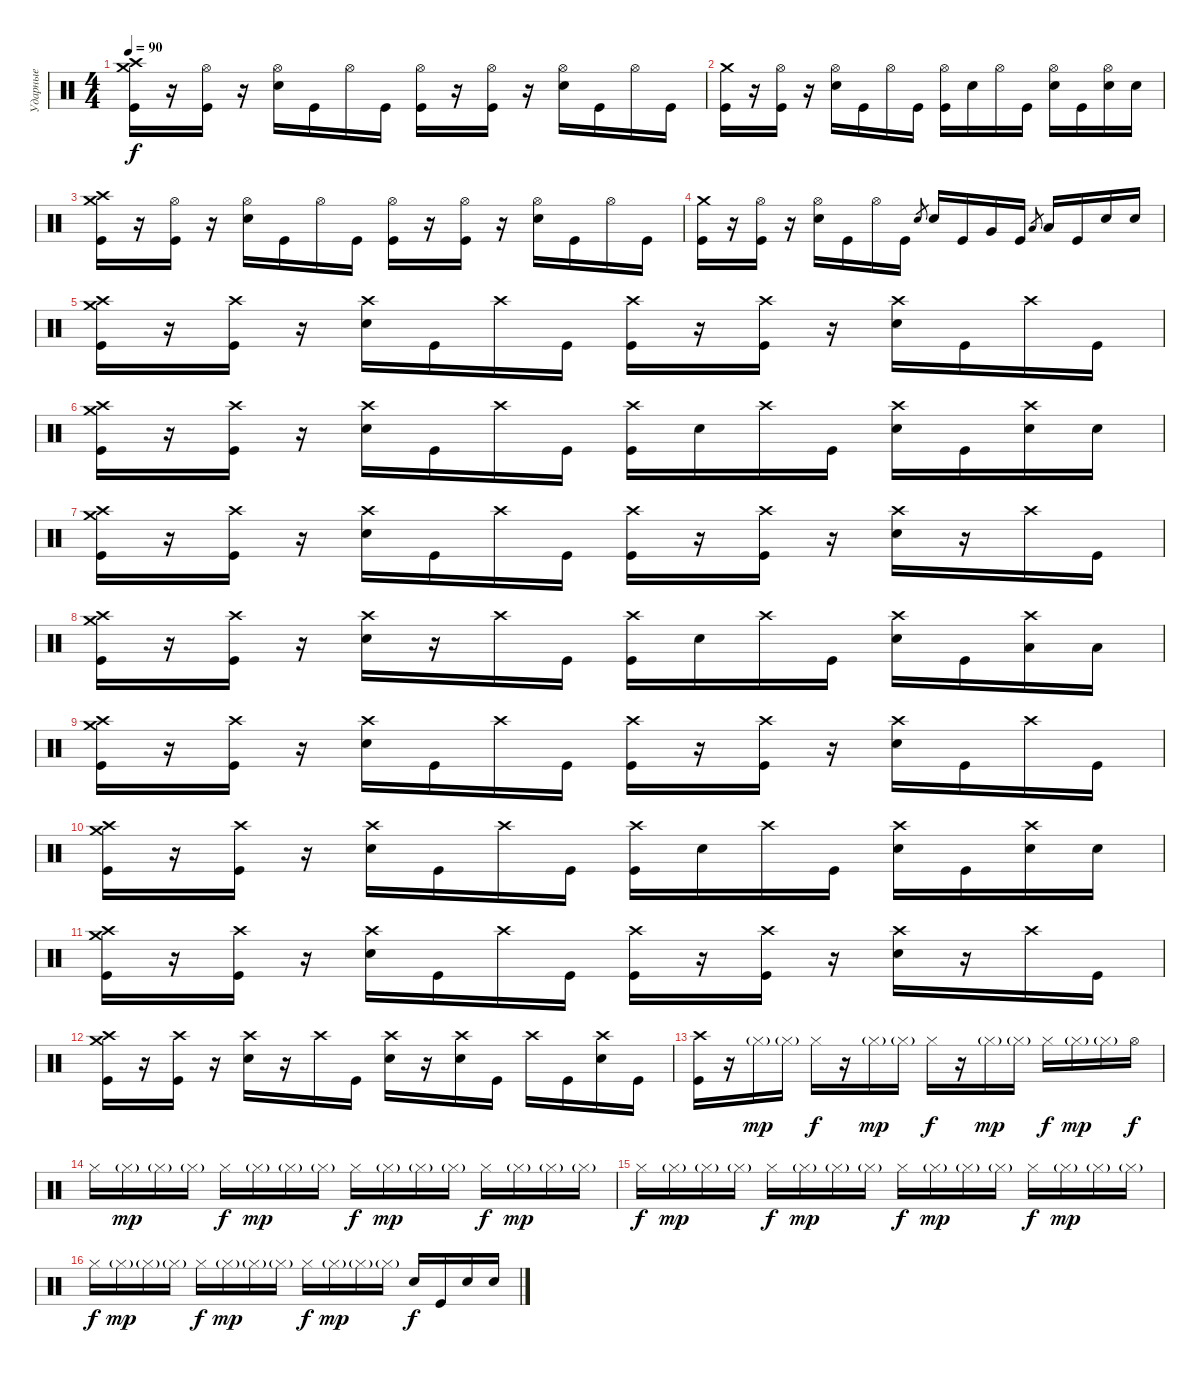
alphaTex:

\track ("Ударные" "Ударные") {instrument percussion}
\staff {score}
\articulation defaults
\ts (4 4)
\tempo 90
\clef neutral
\ks c
("Crash high (hit)" "Kick (hit)" "Crash medium (hit)").16{dy f} r.16 ("Kick (hit)" "Hi-Hat (open)").16 r.16 ("Hi-Hat (open)" "Snare (hit) 2").16 "Kick (hit)".16 "Hi-Hat (open)".16 "Kick (hit)".16 ("Hi-Hat (open)" "Kick (hit)").16 r.16 ("Hi-Hat (open)" "Kick (hit)").16 r.16 ("Hi-Hat (open)" "Snare (hit) 2").16 "Kick (hit)".16 "Hi-Hat (open)".16 "Kick (hit)".16 |
("Kick (hit)" "Crash medium (hit)").16 r.16 ("Kick (hit)" "Hi-Hat (open)").16 r.16 ("Hi-Hat (open)" "Snare (hit) 2").16 "Kick (hit)".16 "Hi-Hat (open)".16 "Kick (hit)".16 ("Hi-Hat (open)" "Kick (hit)").16 "Snare (hit) 2".16 "Hi-Hat (open)".16 "Kick (hit)".16 ("Hi-Hat (open)" "Snare (hit) 2").16 "Kick (hit)".16 ("Hi-Hat (open)" "Snare (hit) 2").16 "Snare (hit) 2".16 |
("Crash high (hit)" "Kick (hit)" "Crash medium (hit)").16 r.16 ("Kick (hit)" "Hi-Hat (open)").16 r.16 ("Hi-Hat (open)" "Snare (hit) 2").16 "Kick (hit)".16 "Hi-Hat (open)".16 "Kick (hit)".16 ("Hi-Hat (open)" "Kick (hit)").16 r.16 ("Hi-Hat (open)" "Kick (hit)").16 r.16 ("Hi-Hat (open)" "Snare (hit) 2").16 "Kick (hit)".16 "Hi-Hat (open)".16 "Kick (hit)".16 |
("Kick (hit)" "Crash medium (hit)").16 r.16 ("Kick (hit)" "Hi-Hat (open)").16 r.16 ("Hi-Hat (open)" "Snare (hit) 2").16 "Kick (hit)".16 "Hi-Hat (open)".16 "Kick (hit)".16 "Snare (hit) 2".8{gr} "Snare (hit) 2".16 "Kick (hit)".16 "Very Low Tom (hit)".16 "Kick (hit)".16 "Low Tom (hit)".8{gr} "Low Tom (hit)".16 "Kick (hit)".16 "Snare (hit) 2".16 "Snare (hit) 2".16 |
("Crash high (hit)" "Kick (hit)" "Crash medium (hit)").16 r.16 ("Kick (hit)" "Crash high (hit)").16 r.16 ("Crash high (hit)" "Snare (hit) 2").16 "Kick (hit)".16 "Crash high (hit)".16 "Kick (hit)".16 ("Crash high (hit)" "Kick (hit)").16 r.16 ("Crash high (hit)" "Kick (hit)").16 r.16 ("Crash high (hit)" "Snare (hit) 2").16 "Kick (hit)".16 "Crash high (hit)".16 "Kick (hit)".16 |
("Crash high (hit)" "Kick (hit)" "Crash medium (hit)").16 r.16 ("Kick (hit)" "Crash high (hit)").16 r.16 ("Crash high (hit)" "Snare (hit) 2").16 "Kick (hit)".16 "Crash high (hit)".16 "Kick (hit)".16 ("Crash high (hit)" "Kick (hit)").16 "Snare (hit) 2".16 "Crash high (hit)".16 "Kick (hit)".16 ("Crash high (hit)" "Snare (hit) 2").16 "Kick (hit)".16 ("Crash high (hit)" "Snare (hit) 2").16 "Snare (hit) 2".16 |
("Crash high (hit)" "Kick (hit)" "Crash medium (hit)").16 r.16 ("Kick (hit)" "Crash high (hit)").16 r.16 ("Crash high (hit)" "Snare (hit) 2").16 "Kick (hit)".16 "Crash high (hit)".16 "Kick (hit)".16 ("Crash high (hit)" "Kick (hit)").16 r.16 ("Crash high (hit)" "Kick (hit)").16 r.16 ("Crash high (hit)" "Snare (hit) 2").16 r.16 "Crash high (hit)".16 "Kick (hit)".16 |
("Crash high (hit)" "Kick (hit)" "Crash medium (hit)").16 r.16 ("Kick (hit)" "Crash high (hit)").16 r.16 ("Crash high (hit)" "Snare (hit) 2").16 r.16 "Crash high (hit)".16 "Kick (hit)".16 ("Crash high (hit)" "Kick (hit)").16 "Snare (hit) 2".16 "Crash high (hit)".16 "Kick (hit)".16 ("Crash high (hit)" "Snare (hit) 2").16 "Kick (hit)".16 ("Low Floor Tom (hit)" "Crash high (hit)").16 "Low Floor Tom (hit)".16 |
("Crash high (hit)" "Kick (hit)" "Crash medium (hit)").16 r.16 ("Kick (hit)" "Crash high (hit)").16 r.16 ("Crash high (hit)" "Snare (hit) 2").16 "Kick (hit)".16 "Crash high (hit)".16 "Kick (hit)".16 ("Crash high (hit)" "Kick (hit)").16 r.16 ("Crash high (hit)" "Kick (hit)").16 r.16 ("Crash high (hit)" "Snare (hit) 2").16 "Kick (hit)".16 "Crash high (hit)".16 "Kick (hit)".16 |
("Crash high (hit)" "Kick (hit)" "Crash medium (hit)").16 r.16 ("Kick (hit)" "Crash high (hit)").16 r.16 ("Crash high (hit)" "Snare (hit) 2").16 "Kick (hit)".16 "Crash high (hit)".16 "Kick (hit)".16 ("Crash high (hit)" "Kick (hit)").16 "Snare (hit) 2".16 "Crash high (hit)".16 "Kick (hit)".16 ("Crash high (hit)" "Snare (hit) 2").16 "Kick (hit)".16 ("Crash high (hit)" "Snare (hit) 2").16 "Snare (hit) 2".16 |
("Crash high (hit)" "Kick (hit)" "Crash medium (hit)").16 r.16 ("Kick (hit)" "Crash high (hit)").16 r.16 ("Crash high (hit)" "Snare (hit) 2").16 "Kick (hit)".16 "Crash high (hit)".16 "Kick (hit)".16 ("Crash high (hit)" "Kick (hit)").16 r.16 ("Crash high (hit)" "Kick (hit)").16 r.16 ("Crash high (hit)" "Snare (hit) 2").16 r.16 "Crash high (hit)".16 "Kick (hit)".16 |
("Crash high (hit)" "Kick (hit)" "Crash medium (hit)").16 r.16 ("Kick (hit)" "Crash high (hit)").16 r.16 ("Crash high (hit)" "Snare (hit) 2").16 r.16 "Crash high (hit)".16 "Kick (hit)".16 ("Crash high (hit)" "Snare (hit) 2").16 r.16 ("Snare (hit) 2" "Crash high (hit)").16 "Kick (hit)".16 "Crash high (hit)".16 "Kick (hit)".16 ("Crash high (hit)" "Snare (hit) 2").16 "Kick (hit)".16 |
("Crash high (hit)" "Kick (hit)").16 r.16 "Hi-Hat (closed)"{g}.16{dy mp} "Hi-Hat (closed)"{g}.16 "Hi-Hat (closed)".16{dy f} r.16 "Hi-Hat (closed)"{g}.16{dy mp} "Hi-Hat (closed)"{g}.16 "Hi-Hat (closed)".16{dy f} r.16 "Hi-Hat (closed)"{g}.16{dy mp} "Hi-Hat (closed)"{g}.16 "Hi-Hat (closed)".16{dy f} "Hi-Hat (closed)"{g}.16{dy mp} "Hi-Hat (closed)"{g}.16 "Hi-Hat (open)".16{dy f} |
"Hi-Hat (closed)".16 "Hi-Hat (closed)"{g}.16{dy mp} "Hi-Hat (closed)"{g}.16 "Hi-Hat (closed)"{g}.16 "Hi-Hat (closed)".16{dy f} "Hi-Hat (closed)"{g}.16{dy mp} "Hi-Hat (closed)"{g}.16 "Hi-Hat (closed)"{g}.16 "Hi-Hat (closed)".16{dy f} "Hi-Hat (closed)"{g}.16{dy mp} "Hi-Hat (closed)"{g}.16 "Hi-Hat (closed)"{g}.16 "Hi-Hat (closed)".16{dy f} "Hi-Hat (closed)"{g}.16{dy mp} "Hi-Hat (closed)"{g}.16 "Hi-Hat (closed)"{g}.16 |
"Hi-Hat (closed)".16{dy f} "Hi-Hat (closed)"{g}.16{dy mp} "Hi-Hat (closed)"{g}.16 "Hi-Hat (closed)"{g}.16 "Hi-Hat (closed)".16{dy f} "Hi-Hat (closed)"{g}.16{dy mp} "Hi-Hat (closed)"{g}.16 "Hi-Hat (closed)"{g}.16 "Hi-Hat (closed)".16{dy f} "Hi-Hat (closed)"{g}.16{dy mp} "Hi-Hat (closed)"{g}.16 "Hi-Hat (closed)"{g}.16 "Hi-Hat (closed)".16{dy f} "Hi-Hat (closed)"{g}.16{dy mp} "Hi-Hat (closed)"{g}.16 "Hi-Hat (closed)"{g}.16 |
"Hi-Hat (closed)".16{dy f} "Hi-Hat (closed)"{g}.16{dy mp} "Hi-Hat (closed)"{g}.16 "Hi-Hat (closed)"{g}.16 "Hi-Hat (closed)".16{dy f} "Hi-Hat (closed)"{g}.16{dy mp} "Hi-Hat (closed)"{g}.16 "Hi-Hat (closed)"{g}.16 "Hi-Hat (closed)".16{dy f} "Hi-Hat (closed)"{g}.16{dy mp} "Hi-Hat (closed)"{g}.16 "Hi-Hat (closed)"{g}.16 "Snare (hit) 2".16{dy f} "Kick (hit)".16 "Snare (hit) 2".16 "Snare (hit) 2".16
